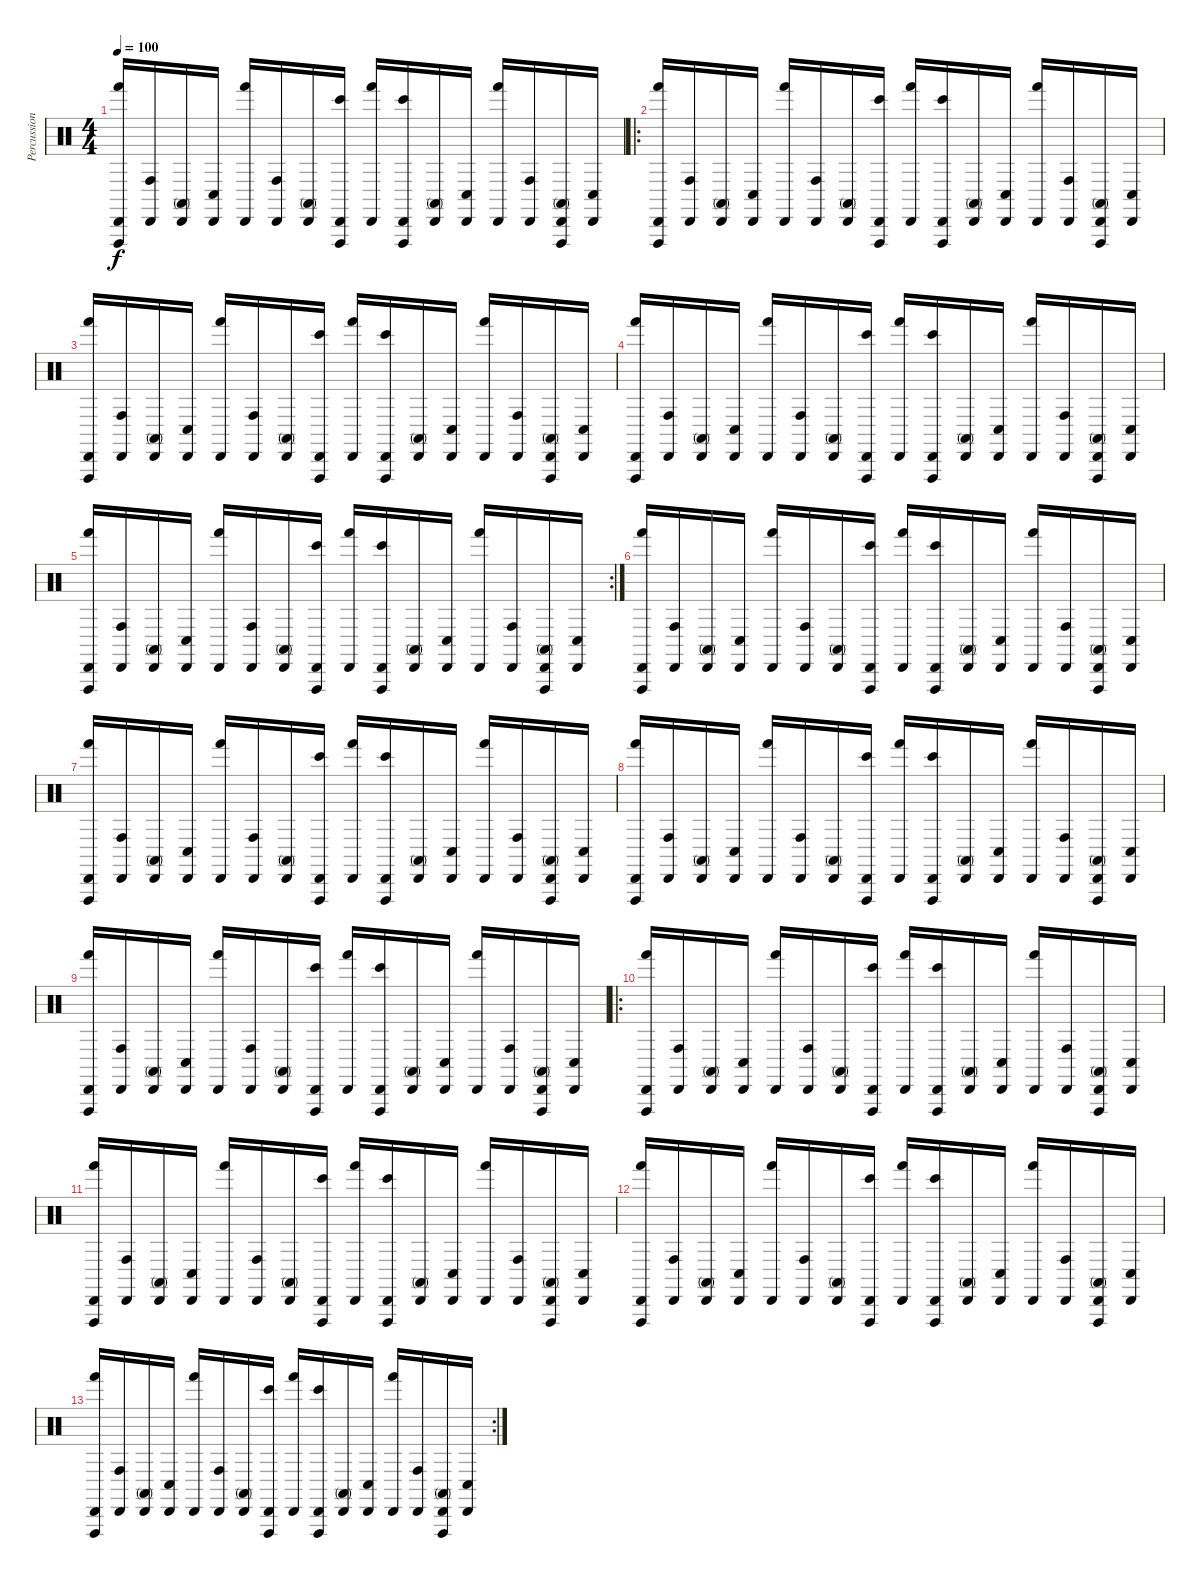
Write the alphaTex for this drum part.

\track ("Percussion" "Percussion") {instrument percussion}
\staff {score}
\articulation defaults
\ts (4 4)
\tempo 100
\clef neutral
\ks c
("Cabasa (hit)" "Vibraslap (hit)" "Hand (hit)").16{dy f} ("Cabasa (hit)" "Conga high (hit)").16 ("Cabasa (hit)" "Conga high (mute)").16 ("Cabasa (hit)" "Conga low (hit)").16 ("Cabasa (hit)" "Hand (hit)").16 ("Cabasa (hit)" "Conga high (hit)").16 ("Cabasa (hit)" "Conga high (mute)").16 ("Cabasa (hit)" "Vibraslap (hit)" "Bongo High (hit)").16 ("Cabasa (hit)" "Hand (hit)").16 ("Cabasa (hit)" "Vibraslap (hit)" "Bongo High (hit)").16 ("Cabasa (hit)" "Conga high (mute)").16 ("Cabasa (hit)" "Conga low (hit)").16 ("Cabasa (hit)" "Hand (hit)").16 ("Cabasa (hit)" "Conga high (hit)").16 ("Cabasa (hit)" "Vibraslap (hit)" "Conga high (mute)").16 ("Cabasa (hit)" "Conga low (hit)").16 |
\ro
("Cabasa (hit)" "Vibraslap (hit)" "Hand (hit)").16 ("Cabasa (hit)" "Conga high (hit)").16 ("Cabasa (hit)" "Conga high (mute)").16 ("Cabasa (hit)" "Conga low (hit)").16 ("Cabasa (hit)" "Hand (hit)").16 ("Cabasa (hit)" "Conga high (hit)").16 ("Cabasa (hit)" "Conga high (mute)").16 ("Cabasa (hit)" "Vibraslap (hit)" "Bongo High (hit)").16 ("Cabasa (hit)" "Hand (hit)").16 ("Cabasa (hit)" "Vibraslap (hit)" "Bongo High (hit)").16 ("Cabasa (hit)" "Conga high (mute)").16 ("Cabasa (hit)" "Conga low (hit)").16 ("Cabasa (hit)" "Hand (hit)").16 ("Cabasa (hit)" "Conga high (hit)").16 ("Cabasa (hit)" "Vibraslap (hit)" "Conga high (mute)").16 ("Cabasa (hit)" "Conga low (hit)").16 |
("Cabasa (hit)" "Vibraslap (hit)" "Hand (hit)").16 ("Cabasa (hit)" "Conga high (hit)").16 ("Cabasa (hit)" "Conga high (mute)").16 ("Cabasa (hit)" "Conga low (hit)").16 ("Cabasa (hit)" "Hand (hit)").16 ("Cabasa (hit)" "Conga high (hit)").16 ("Cabasa (hit)" "Conga high (mute)").16 ("Cabasa (hit)" "Vibraslap (hit)" "Bongo High (hit)").16 ("Cabasa (hit)" "Hand (hit)").16 ("Cabasa (hit)" "Vibraslap (hit)" "Bongo High (hit)").16 ("Cabasa (hit)" "Conga high (mute)").16 ("Cabasa (hit)" "Conga low (hit)").16 ("Cabasa (hit)" "Hand (hit)").16 ("Cabasa (hit)" "Conga high (hit)").16 ("Cabasa (hit)" "Vibraslap (hit)" "Conga high (mute)").16 ("Cabasa (hit)" "Conga low (hit)").16 |
("Cabasa (hit)" "Vibraslap (hit)" "Hand (hit)").16 ("Cabasa (hit)" "Conga high (hit)").16 ("Cabasa (hit)" "Conga high (mute)").16 ("Cabasa (hit)" "Conga low (hit)").16 ("Cabasa (hit)" "Hand (hit)").16 ("Cabasa (hit)" "Conga high (hit)").16 ("Cabasa (hit)" "Conga high (mute)").16 ("Cabasa (hit)" "Vibraslap (hit)" "Bongo High (hit)").16 ("Cabasa (hit)" "Hand (hit)").16 ("Cabasa (hit)" "Vibraslap (hit)" "Bongo High (hit)").16 ("Cabasa (hit)" "Conga high (mute)").16 ("Cabasa (hit)" "Conga low (hit)").16 ("Cabasa (hit)" "Hand (hit)").16 ("Cabasa (hit)" "Conga high (hit)").16 ("Cabasa (hit)" "Vibraslap (hit)" "Conga high (mute)").16 ("Cabasa (hit)" "Conga low (hit)").16 |
\rc 2
("Cabasa (hit)" "Vibraslap (hit)" "Hand (hit)").16 ("Cabasa (hit)" "Conga high (hit)").16 ("Cabasa (hit)" "Conga high (mute)").16 ("Cabasa (hit)" "Conga low (hit)").16 ("Cabasa (hit)" "Hand (hit)").16 ("Cabasa (hit)" "Conga high (hit)").16 ("Cabasa (hit)" "Conga high (mute)").16 ("Cabasa (hit)" "Vibraslap (hit)" "Bongo High (hit)").16 ("Cabasa (hit)" "Hand (hit)").16 ("Cabasa (hit)" "Vibraslap (hit)" "Bongo High (hit)").16 ("Cabasa (hit)" "Conga high (mute)").16 ("Cabasa (hit)" "Conga low (hit)").16 ("Cabasa (hit)" "Hand (hit)").16 ("Cabasa (hit)" "Conga high (hit)").16 ("Cabasa (hit)" "Vibraslap (hit)" "Conga high (mute)").16 ("Cabasa (hit)" "Conga low (hit)").16 |
("Cabasa (hit)" "Vibraslap (hit)" "Hand (hit)").16 ("Cabasa (hit)" "Conga high (hit)").16 ("Cabasa (hit)" "Conga high (mute)").16 ("Cabasa (hit)" "Conga low (hit)").16 ("Cabasa (hit)" "Hand (hit)").16 ("Cabasa (hit)" "Conga high (hit)").16 ("Cabasa (hit)" "Conga high (mute)").16 ("Cabasa (hit)" "Vibraslap (hit)" "Bongo High (hit)").16 ("Cabasa (hit)" "Hand (hit)").16 ("Cabasa (hit)" "Vibraslap (hit)" "Bongo High (hit)").16 ("Cabasa (hit)" "Conga high (mute)").16 ("Cabasa (hit)" "Conga low (hit)").16 ("Cabasa (hit)" "Hand (hit)").16 ("Cabasa (hit)" "Conga high (hit)").16 ("Cabasa (hit)" "Vibraslap (hit)" "Conga high (mute)").16 ("Cabasa (hit)" "Conga low (hit)").16 |
("Cabasa (hit)" "Vibraslap (hit)" "Hand (hit)").16 ("Cabasa (hit)" "Conga high (hit)").16 ("Cabasa (hit)" "Conga high (mute)").16 ("Cabasa (hit)" "Conga low (hit)").16 ("Cabasa (hit)" "Hand (hit)").16 ("Cabasa (hit)" "Conga high (hit)").16 ("Cabasa (hit)" "Conga high (mute)").16 ("Cabasa (hit)" "Vibraslap (hit)" "Bongo High (hit)").16 ("Cabasa (hit)" "Hand (hit)").16 ("Cabasa (hit)" "Vibraslap (hit)" "Bongo High (hit)").16 ("Cabasa (hit)" "Conga high (mute)").16 ("Cabasa (hit)" "Conga low (hit)").16 ("Cabasa (hit)" "Hand (hit)").16 ("Cabasa (hit)" "Conga high (hit)").16 ("Cabasa (hit)" "Vibraslap (hit)" "Conga high (mute)").16 ("Cabasa (hit)" "Conga low (hit)").16 |
("Cabasa (hit)" "Vibraslap (hit)" "Hand (hit)").16 ("Cabasa (hit)" "Conga high (hit)").16 ("Cabasa (hit)" "Conga high (mute)").16 ("Cabasa (hit)" "Conga low (hit)").16 ("Cabasa (hit)" "Hand (hit)").16 ("Cabasa (hit)" "Conga high (hit)").16 ("Cabasa (hit)" "Conga high (mute)").16 ("Cabasa (hit)" "Vibraslap (hit)" "Bongo High (hit)").16 ("Cabasa (hit)" "Hand (hit)").16 ("Cabasa (hit)" "Vibraslap (hit)" "Bongo High (hit)").16 ("Cabasa (hit)" "Conga high (mute)").16 ("Cabasa (hit)" "Conga low (hit)").16 ("Cabasa (hit)" "Hand (hit)").16 ("Cabasa (hit)" "Conga high (hit)").16 ("Cabasa (hit)" "Vibraslap (hit)" "Conga high (mute)").16 ("Cabasa (hit)" "Conga low (hit)").16 |
("Cabasa (hit)" "Vibraslap (hit)" "Hand (hit)").16 ("Cabasa (hit)" "Conga high (hit)").16 ("Cabasa (hit)" "Conga high (mute)").16 ("Cabasa (hit)" "Conga low (hit)").16 ("Cabasa (hit)" "Hand (hit)").16 ("Cabasa (hit)" "Conga high (hit)").16 ("Cabasa (hit)" "Conga high (mute)").16 ("Cabasa (hit)" "Vibraslap (hit)" "Bongo High (hit)").16 ("Cabasa (hit)" "Hand (hit)").16 ("Cabasa (hit)" "Vibraslap (hit)" "Bongo High (hit)").16 ("Cabasa (hit)" "Conga high (mute)").16 ("Cabasa (hit)" "Conga low (hit)").16 ("Cabasa (hit)" "Hand (hit)").16 ("Cabasa (hit)" "Conga high (hit)").16 ("Cabasa (hit)" "Vibraslap (hit)" "Conga high (mute)").16 ("Cabasa (hit)" "Conga low (hit)").16 |
\ro
("Cabasa (hit)" "Vibraslap (hit)" "Hand (hit)").16 ("Cabasa (hit)" "Conga high (hit)").16 ("Cabasa (hit)" "Conga high (mute)").16 ("Cabasa (hit)" "Conga low (hit)").16 ("Cabasa (hit)" "Hand (hit)").16 ("Cabasa (hit)" "Conga high (hit)").16 ("Cabasa (hit)" "Conga high (mute)").16 ("Cabasa (hit)" "Vibraslap (hit)" "Bongo High (hit)").16 ("Cabasa (hit)" "Hand (hit)").16 ("Cabasa (hit)" "Vibraslap (hit)" "Bongo High (hit)").16 ("Cabasa (hit)" "Conga high (mute)").16 ("Cabasa (hit)" "Conga low (hit)").16 ("Cabasa (hit)" "Hand (hit)").16 ("Cabasa (hit)" "Conga high (hit)").16 ("Cabasa (hit)" "Vibraslap (hit)" "Conga high (mute)").16 ("Cabasa (hit)" "Conga low (hit)").16 |
("Cabasa (hit)" "Vibraslap (hit)" "Hand (hit)").16 ("Cabasa (hit)" "Conga high (hit)").16 ("Cabasa (hit)" "Conga high (mute)").16 ("Cabasa (hit)" "Conga low (hit)").16 ("Cabasa (hit)" "Hand (hit)").16 ("Cabasa (hit)" "Conga high (hit)").16 ("Cabasa (hit)" "Conga high (mute)").16 ("Cabasa (hit)" "Vibraslap (hit)" "Bongo High (hit)").16 ("Cabasa (hit)" "Hand (hit)").16 ("Cabasa (hit)" "Vibraslap (hit)" "Bongo High (hit)").16 ("Cabasa (hit)" "Conga high (mute)").16 ("Cabasa (hit)" "Conga low (hit)").16 ("Cabasa (hit)" "Hand (hit)").16 ("Cabasa (hit)" "Conga high (hit)").16 ("Cabasa (hit)" "Vibraslap (hit)" "Conga high (mute)").16 ("Cabasa (hit)" "Conga low (hit)").16 |
("Cabasa (hit)" "Vibraslap (hit)" "Hand (hit)").16 ("Cabasa (hit)" "Conga high (hit)").16 ("Cabasa (hit)" "Conga high (mute)").16 ("Cabasa (hit)" "Conga low (hit)").16 ("Cabasa (hit)" "Hand (hit)").16 ("Cabasa (hit)" "Conga high (hit)").16 ("Cabasa (hit)" "Conga high (mute)").16 ("Cabasa (hit)" "Vibraslap (hit)" "Bongo High (hit)").16 ("Cabasa (hit)" "Hand (hit)").16 ("Cabasa (hit)" "Vibraslap (hit)" "Bongo High (hit)").16 ("Cabasa (hit)" "Conga high (mute)").16 ("Cabasa (hit)" "Conga low (hit)").16 ("Cabasa (hit)" "Hand (hit)").16 ("Cabasa (hit)" "Conga high (hit)").16 ("Cabasa (hit)" "Vibraslap (hit)" "Conga high (mute)").16 ("Cabasa (hit)" "Conga low (hit)").16 |
\rc 2
("Cabasa (hit)" "Vibraslap (hit)" "Hand (hit)").16 ("Cabasa (hit)" "Conga high (hit)").16 ("Cabasa (hit)" "Conga high (mute)").16 ("Cabasa (hit)" "Conga low (hit)").16 ("Cabasa (hit)" "Hand (hit)").16 ("Cabasa (hit)" "Conga high (hit)").16 ("Cabasa (hit)" "Conga high (mute)").16 ("Cabasa (hit)" "Vibraslap (hit)" "Bongo High (hit)").16 ("Cabasa (hit)" "Hand (hit)").16 ("Cabasa (hit)" "Vibraslap (hit)" "Bongo High (hit)").16 ("Cabasa (hit)" "Conga high (mute)").16 ("Cabasa (hit)" "Conga low (hit)").16 ("Cabasa (hit)" "Hand (hit)").16 ("Cabasa (hit)" "Conga high (hit)").16 ("Cabasa (hit)" "Vibraslap (hit)" "Conga high (mute)").16 ("Cabasa (hit)" "Conga low (hit)").16
